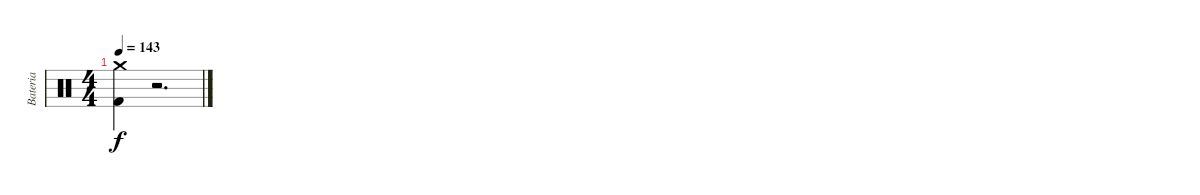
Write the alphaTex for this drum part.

\track ("Bateria" "Bateria") {instrument percussion}
\staff {score}
\articulation defaults
\ts (4 4)
\tempo 143
\clef neutral
\ks c
("Crash medium (hit)" "Kick (hit) 2").4{dy f} r.2{d}
